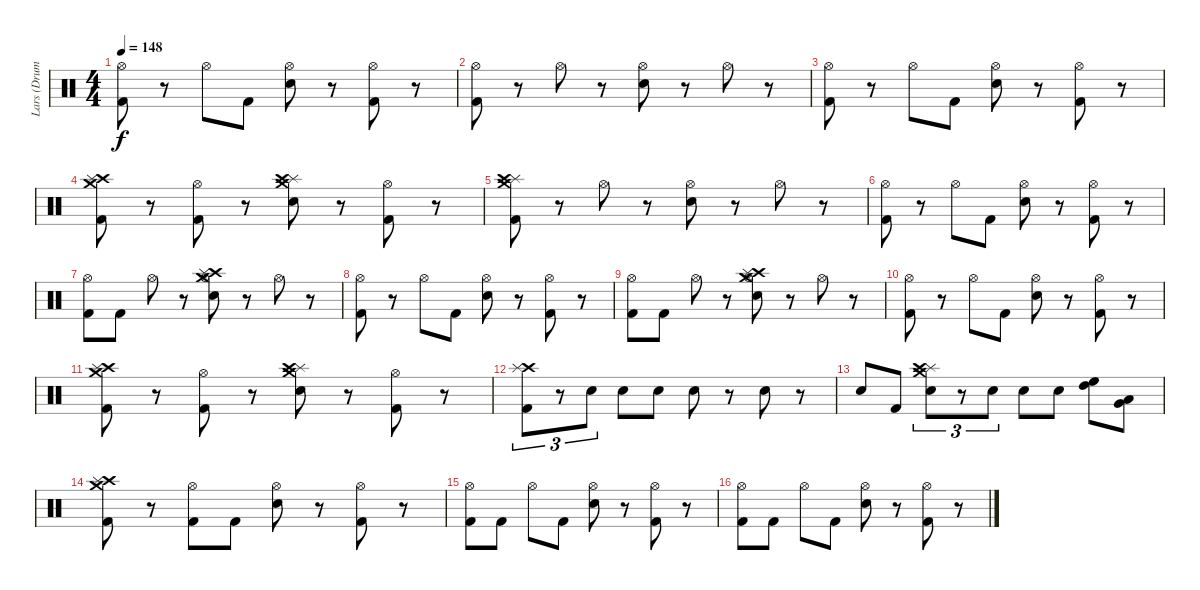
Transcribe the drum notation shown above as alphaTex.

\track ("Lars (Drums)" "Lars (Drum") {instrument percussion}
\staff {score}
\articulation defaults
\ts (4 4)
\tempo 148
\clef neutral
\ks c
("Hi-Hat (open)" "Kick (hit) 2").8{dy f} r.8 "Hi-Hat (open)".8 "Kick (hit) 2".8 ("Hi-Hat (open)" "Snare (hit) 2").8 r.8 ("Hi-Hat (open)" "Kick (hit) 2").8 r.8 |
("Hi-Hat (open)" "Kick (hit) 2").8 r.8 "Hi-Hat (open)".8 r.8 ("Hi-Hat (open)" "Snare (hit) 2").8 r.8 "Hi-Hat (open)".8 r.8 |
("Hi-Hat (open)" "Kick (hit) 2").8 r.8 "Hi-Hat (open)".8 "Kick (hit) 2".8 ("Hi-Hat (open)" "Snare (hit) 2").8 r.8 ("Hi-Hat (open)" "Kick (hit) 2").8 r.8 |
("Crash medium (hit)" "Crash high (hit)" "Splash (hit)" "Kick (hit) 2").8 r.8 ("Kick (hit) 2" "Hi-Hat (open)").8 r.8 ("Crash medium (hit)" "Splash (hit)" "Crash high (hit)" "Snare (hit) 2").8 r.8 ("Kick (hit) 2" "Hi-Hat (open)").8 r.8 |
("Splash (hit)" "Crash medium (hit)" "Crash high (hit)" "Kick (hit) 2").8 r.8 "Hi-Hat (open)".8 r.8 ("Hi-Hat (open)" "Snare (hit) 2").8 r.8 "Hi-Hat (open)".8 r.8 |
("Hi-Hat (open)" "Kick (hit) 2").8 r.8 "Hi-Hat (open)".8 "Kick (hit) 2".8 ("Hi-Hat (open)" "Snare (hit) 2").8 r.8 ("Hi-Hat (open)" "Kick (hit) 2").8 r.8 |
("Hi-Hat (open)" "Kick (hit) 2").8 "Kick (hit) 2".8 "Hi-Hat (open)".8 r.8 ("Crash high (hit)" "Crash medium (hit)" "Splash (hit)" "Hi-Hat (open)" "Snare (hit) 2").8 r.8 "Hi-Hat (open)".8 r.8 |
("Hi-Hat (open)" "Kick (hit) 2").8 r.8 "Hi-Hat (open)".8 "Kick (hit) 2".8 ("Hi-Hat (open)" "Snare (hit) 2").8 r.8 ("Hi-Hat (open)" "Kick (hit) 2").8 r.8 |
("Hi-Hat (open)" "Kick (hit) 2").8 "Kick (hit) 2".8 "Hi-Hat (open)".8 r.8 ("Crash high (hit)" "Crash medium (hit)" "Splash (hit)" "Hi-Hat (open)" "Snare (hit) 2").8 r.8 "Hi-Hat (open)".8 r.8 |
("Hi-Hat (open)" "Kick (hit) 2").8 r.8 "Hi-Hat (open)".8 "Kick (hit) 2".8 ("Hi-Hat (open)" "Snare (hit) 2").8 r.8 ("Hi-Hat (open)" "Kick (hit) 2").8 r.8 |
("Crash medium (hit)" "Crash high (hit)" "Splash (hit)" "Kick (hit) 2").8 r.8 ("Kick (hit) 2" "Hi-Hat (open)").8 r.8 ("Crash medium (hit)" "Splash (hit)" "Crash high (hit)" "Snare (hit) 2").8 r.8 ("Kick (hit) 2" "Hi-Hat (open)").8 r.8 |
("Kick (hit) 2" "Crash high (hit)" "Splash (hit)").8{tu (3 2)} r.8{tu (3 2)} "Snare (hit) 2".8{tu (3 2)} "Snare (hit) 2".8 "Snare (hit) 2".8 "Snare (hit) 2".8 r.8 "Snare (hit) 2".8 r.8 |
"Snare (hit) 2".8 "Kick (hit) 2".8 ("Crash medium (hit)" "Splash (hit)" "Crash high (hit)" "Snare (hit) 2").8{tu (3 2)} r.8{tu (3 2)} "Snare (hit) 2".8{tu (3 2)} "Snare (hit) 2".8 "Snare (hit) 2".8 ("High Tom (hit)" "High Floor Tom (hit)").8 ("Very Low Tom (hit)" "Low Tom (hit)").8 |
("Crash high (hit)" "Splash (hit)" "Crash medium (hit)" "Kick (hit) 2").8 r.8 ("Hi-Hat (open)" "Kick (hit) 2").8 "Kick (hit) 2".8 ("Hi-Hat (open)" "Snare (hit) 2").8 r.8 ("Hi-Hat (open)" "Kick (hit) 2").8 r.8 |
("Hi-Hat (open)" "Kick (hit) 2").8 "Kick (hit) 2".8 "Hi-Hat (open)".8 "Kick (hit) 2".8 ("Hi-Hat (open)" "Snare (hit) 2").8 r.8 ("Hi-Hat (open)" "Kick (hit) 2").8 r.8 |
("Hi-Hat (open)" "Kick (hit) 2").8 "Kick (hit) 2".8 "Hi-Hat (open)".8 "Kick (hit) 2".8 ("Hi-Hat (open)" "Snare (hit) 2").8 r.8 ("Hi-Hat (open)" "Kick (hit) 2").8 r.8
